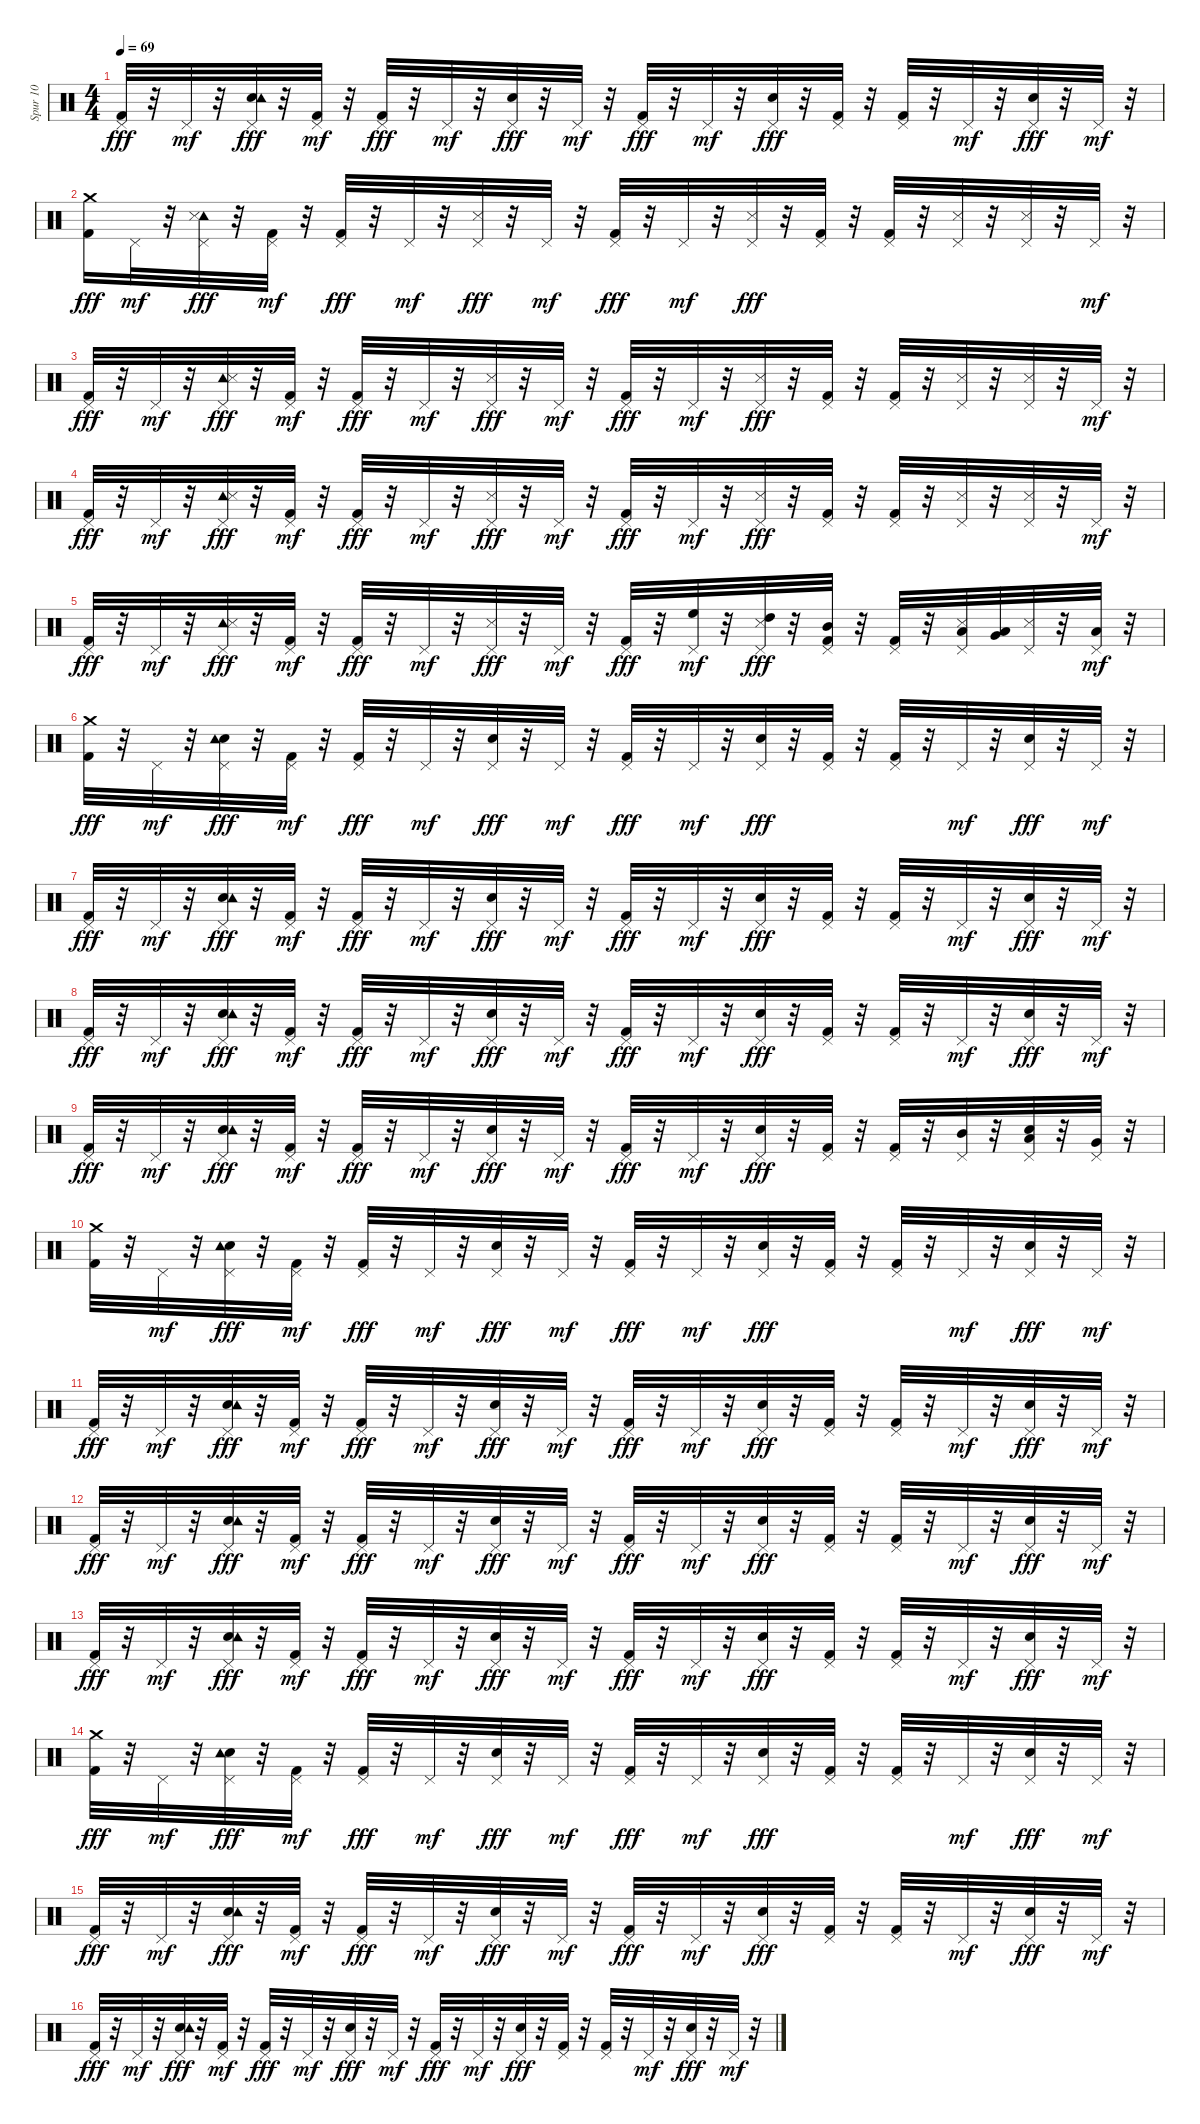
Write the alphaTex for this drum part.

\track ("Spur 10" "Spur 10") {instrument percussion}
\staff {score}
\articulation defaults
\ts (4 4)
\tempo 69
\clef neutral
\ks c
("Kick (hit) 2" "Pedal Hi-Hat (hit)").32{dy fff} r.32 "Pedal Hi-Hat (hit)".32{dy mf} r.32 ("Snare (hit) 2" "Pedal Hi-Hat (hit)" "Tambourine (hit)").32{dy fff} r.32 ("Kick (hit) 2" "Pedal Hi-Hat (hit)").32{dy mf} r.32 ("Kick (hit) 2" "Pedal Hi-Hat (hit)").32{dy fff} r.32 "Pedal Hi-Hat (hit)".32{dy mf} r.32 ("Snare (hit) 2" "Pedal Hi-Hat (hit)").32{dy fff} r.32 "Pedal Hi-Hat (hit)".32{dy mf} r.32 ("Kick (hit) 2" "Pedal Hi-Hat (hit)").32{dy fff} r.32 "Pedal Hi-Hat (hit)".32{dy mf} r.32 ("Snare (hit) 2" "Pedal Hi-Hat (hit)").32{dy fff} r.32 ("Kick (hit) 2" "Pedal Hi-Hat (hit)").32 r.32 ("Kick (hit) 2" "Pedal Hi-Hat (hit)").32 r.32 "Pedal Hi-Hat (hit)".32{dy mf} r.32 ("Snare (hit) 2" "Pedal Hi-Hat (hit)").32{dy fff} r.32 "Pedal Hi-Hat (hit)".32{dy mf} r.32 |
("Kick (hit) 2" "Crash medium (hit)").16{dy fff} "Pedal Hi-Hat (hit)".32{dy mf} r.32 ("Pedal Hi-Hat (hit)" "Tambourine (hit)" "Snare (side stick) 3").32{dy fff} r.32 ("Kick (hit) 2" "Pedal Hi-Hat (hit)").32{dy mf} r.32 ("Kick (hit) 2" "Pedal Hi-Hat (hit)").32{dy fff} r.32 "Pedal Hi-Hat (hit)".32{dy mf} r.32 ("Pedal Hi-Hat (hit)" "Snare (side stick) 3").32{dy fff} r.32 "Pedal Hi-Hat (hit)".32{dy mf} r.32 ("Kick (hit) 2" "Pedal Hi-Hat (hit)").32{dy fff} r.32 "Pedal Hi-Hat (hit)".32{dy mf} r.32 ("Pedal Hi-Hat (hit)" "Snare (side stick) 3").32{dy fff} r.32 ("Kick (hit) 2" "Pedal Hi-Hat (hit)").32 r.32 ("Kick (hit) 2" "Pedal Hi-Hat (hit)").32 r.32 ("Pedal Hi-Hat (hit)" "Snare (side stick) 3").32 r.32 ("Pedal Hi-Hat (hit)" "Snare (side stick) 3").32 r.32 "Pedal Hi-Hat (hit)".32{dy mf} r.32 |
("Kick (hit) 2" "Pedal Hi-Hat (hit)").32{dy fff} r.32 "Pedal Hi-Hat (hit)".32{dy mf} r.32 ("Pedal Hi-Hat (hit)" "Tambourine (hit)" "Snare (side stick) 3").32{dy fff} r.32 ("Kick (hit) 2" "Pedal Hi-Hat (hit)").32{dy mf} r.32 ("Kick (hit) 2" "Pedal Hi-Hat (hit)").32{dy fff} r.32 "Pedal Hi-Hat (hit)".32{dy mf} r.32 ("Pedal Hi-Hat (hit)" "Snare (side stick) 3").32{dy fff} r.32 "Pedal Hi-Hat (hit)".32{dy mf} r.32 ("Kick (hit) 2" "Pedal Hi-Hat (hit)").32{dy fff} r.32 "Pedal Hi-Hat (hit)".32{dy mf} r.32 ("Pedal Hi-Hat (hit)" "Snare (side stick) 3").32{dy fff} r.32 ("Kick (hit) 2" "Pedal Hi-Hat (hit)").32 r.32 ("Kick (hit) 2" "Pedal Hi-Hat (hit)").32 r.32 ("Pedal Hi-Hat (hit)" "Snare (side stick) 3").32 r.32 ("Pedal Hi-Hat (hit)" "Snare (side stick) 3").32 r.32 "Pedal Hi-Hat (hit)".32{dy mf} r.32 |
("Kick (hit) 2" "Pedal Hi-Hat (hit)").32{dy fff} r.32 "Pedal Hi-Hat (hit)".32{dy mf} r.32 ("Pedal Hi-Hat (hit)" "Tambourine (hit)" "Snare (side stick) 3").32{dy fff} r.32 ("Kick (hit) 2" "Pedal Hi-Hat (hit)").32{dy mf} r.32 ("Kick (hit) 2" "Pedal Hi-Hat (hit)").32{dy fff} r.32 "Pedal Hi-Hat (hit)".32{dy mf} r.32 ("Pedal Hi-Hat (hit)" "Snare (side stick) 3").32{dy fff} r.32 "Pedal Hi-Hat (hit)".32{dy mf} r.32 ("Kick (hit) 2" "Pedal Hi-Hat (hit)").32{dy fff} r.32 "Pedal Hi-Hat (hit)".32{dy mf} r.32 ("Pedal Hi-Hat (hit)" "Snare (side stick) 3").32{dy fff} r.32 ("Kick (hit) 2" "Pedal Hi-Hat (hit)").32 r.32 ("Kick (hit) 2" "Pedal Hi-Hat (hit)").32 r.32 ("Pedal Hi-Hat (hit)" "Snare (side stick) 3").32 r.32 ("Pedal Hi-Hat (hit)" "Snare (side stick) 3").32 r.32 "Pedal Hi-Hat (hit)".32{dy mf} r.32 |
("Kick (hit) 2" "Pedal Hi-Hat (hit)").32{dy fff} r.32 "Pedal Hi-Hat (hit)".32{dy mf} r.32 ("Pedal Hi-Hat (hit)" "Tambourine (hit)" "Snare (side stick) 3").32{dy fff} r.32 ("Kick (hit) 2" "Pedal Hi-Hat (hit)").32{dy mf} r.32 ("Kick (hit) 2" "Pedal Hi-Hat (hit)").32{dy fff} r.32 "Pedal Hi-Hat (hit)".32{dy mf} r.32 ("Pedal Hi-Hat (hit)" "Snare (side stick) 3").32{dy fff} r.32 "Pedal Hi-Hat (hit)".32{dy mf} r.32 ("Kick (hit) 2" "Pedal Hi-Hat (hit)").32{dy fff} r.32 ("High Floor Tom (hit)" "Pedal Hi-Hat (hit)").32{dy mf} r.32 ("High Tom (hit)" "Pedal Hi-Hat (hit)" "Snare (side stick) 3").32{dy fff} r.32 ("Mid Tom (hit)" "Kick (hit) 2" "Pedal Hi-Hat (hit)").32 r.32 ("Kick (hit) 2" "Pedal Hi-Hat (hit)").32 r.32 ("Pedal Hi-Hat (hit)" "Snare (side stick) 3" "Low Tom (hit)").32 ("Low Tom (hit)" "Very Low Tom (hit)").32 ("Pedal Hi-Hat (hit)" "Snare (side stick) 3").32 r.32 ("Low Floor Tom (hit)" "Pedal Hi-Hat (hit)").32{dy mf} r.32 |
("Kick (hit) 2" "Crash medium (hit)").32{dy fff} r.32 "Pedal Hi-Hat (hit)".32{dy mf} r.32 ("Snare (hit) 2" "Pedal Hi-Hat (hit)" "Tambourine (hit)").32{dy fff} r.32 ("Kick (hit) 2" "Pedal Hi-Hat (hit)").32{dy mf} r.32 ("Kick (hit) 2" "Pedal Hi-Hat (hit)").32{dy fff} r.32 "Pedal Hi-Hat (hit)".32{dy mf} r.32 ("Snare (hit) 2" "Pedal Hi-Hat (hit)").32{dy fff} r.32 "Pedal Hi-Hat (hit)".32{dy mf} r.32 ("Kick (hit) 2" "Pedal Hi-Hat (hit)").32{dy fff} r.32 "Pedal Hi-Hat (hit)".32{dy mf} r.32 ("Snare (hit) 2" "Pedal Hi-Hat (hit)").32{dy fff} r.32 ("Kick (hit) 2" "Pedal Hi-Hat (hit)").32 r.32 ("Kick (hit) 2" "Pedal Hi-Hat (hit)").32 r.32 "Pedal Hi-Hat (hit)".32{dy mf} r.32 ("Snare (hit) 2" "Pedal Hi-Hat (hit)").32{dy fff} r.32 "Pedal Hi-Hat (hit)".32{dy mf} r.32 |
("Kick (hit) 2" "Pedal Hi-Hat (hit)").32{dy fff} r.32 "Pedal Hi-Hat (hit)".32{dy mf} r.32 ("Snare (hit) 2" "Pedal Hi-Hat (hit)" "Tambourine (hit)").32{dy fff} r.32 ("Kick (hit) 2" "Pedal Hi-Hat (hit)").32{dy mf} r.32 ("Kick (hit) 2" "Pedal Hi-Hat (hit)").32{dy fff} r.32 "Pedal Hi-Hat (hit)".32{dy mf} r.32 ("Snare (hit) 2" "Pedal Hi-Hat (hit)").32{dy fff} r.32 "Pedal Hi-Hat (hit)".32{dy mf} r.32 ("Kick (hit) 2" "Pedal Hi-Hat (hit)").32{dy fff} r.32 "Pedal Hi-Hat (hit)".32{dy mf} r.32 ("Snare (hit) 2" "Pedal Hi-Hat (hit)").32{dy fff} r.32 ("Kick (hit) 2" "Pedal Hi-Hat (hit)").32 r.32 ("Kick (hit) 2" "Pedal Hi-Hat (hit)").32 r.32 "Pedal Hi-Hat (hit)".32{dy mf} r.32 ("Snare (hit) 2" "Pedal Hi-Hat (hit)").32{dy fff} r.32 "Pedal Hi-Hat (hit)".32{dy mf} r.32 |
("Kick (hit) 2" "Pedal Hi-Hat (hit)").32{dy fff} r.32 "Pedal Hi-Hat (hit)".32{dy mf} r.32 ("Snare (hit) 2" "Pedal Hi-Hat (hit)" "Tambourine (hit)").32{dy fff} r.32 ("Kick (hit) 2" "Pedal Hi-Hat (hit)").32{dy mf} r.32 ("Kick (hit) 2" "Pedal Hi-Hat (hit)").32{dy fff} r.32 "Pedal Hi-Hat (hit)".32{dy mf} r.32 ("Snare (hit) 2" "Pedal Hi-Hat (hit)").32{dy fff} r.32 "Pedal Hi-Hat (hit)".32{dy mf} r.32 ("Kick (hit) 2" "Pedal Hi-Hat (hit)").32{dy fff} r.32 "Pedal Hi-Hat (hit)".32{dy mf} r.32 ("Snare (hit) 2" "Pedal Hi-Hat (hit)").32{dy fff} r.32 ("Kick (hit) 2" "Pedal Hi-Hat (hit)").32 r.32 ("Kick (hit) 2" "Pedal Hi-Hat (hit)").32 r.32 "Pedal Hi-Hat (hit)".32{dy mf} r.32 ("Snare (hit) 2" "Pedal Hi-Hat (hit)").32{dy fff} r.32 "Pedal Hi-Hat (hit)".32{dy mf} r.32 |
("Kick (hit) 2" "Pedal Hi-Hat (hit)").32{dy fff} r.32 "Pedal Hi-Hat (hit)".32{dy mf} r.32 ("Snare (hit) 2" "Pedal Hi-Hat (hit)" "Tambourine (hit)").32{dy fff} r.32 ("Kick (hit) 2" "Pedal Hi-Hat (hit)").32{dy mf} r.32 ("Kick (hit) 2" "Pedal Hi-Hat (hit)").32{dy fff} r.32 "Pedal Hi-Hat (hit)".32{dy mf} r.32 ("Snare (hit) 2" "Pedal Hi-Hat (hit)").32{dy fff} r.32 "Pedal Hi-Hat (hit)".32{dy mf} r.32 ("Kick (hit) 2" "Pedal Hi-Hat (hit)").32{dy fff} r.32 "Pedal Hi-Hat (hit)".32{dy mf} r.32 ("Snare (hit) 2" "Pedal Hi-Hat (hit)").32{dy fff} r.32 ("Kick (hit) 2" "Pedal Hi-Hat (hit)").32 r.32 ("Kick (hit) 2" "Pedal Hi-Hat (hit)").32 r.32 ("Pedal Hi-Hat (hit)" "Mid Tom (hit)").32 r.32 ("Snare (hit) 2" "Pedal Hi-Hat (hit)" "Low Tom (hit)").32 r.32 ("Pedal Hi-Hat (hit)" "Very Low Tom (hit)").32 r.32 |
("Kick (hit) 2" "Crash medium (hit)").32 r.32 "Pedal Hi-Hat (hit)".32{dy mf} r.32 ("Snare (hit) 2" "Pedal Hi-Hat (hit)" "Tambourine (hit)").32{dy fff} r.32 ("Kick (hit) 2" "Pedal Hi-Hat (hit)").32{dy mf} r.32 ("Kick (hit) 2" "Pedal Hi-Hat (hit)").32{dy fff} r.32 "Pedal Hi-Hat (hit)".32{dy mf} r.32 ("Snare (hit) 2" "Pedal Hi-Hat (hit)").32{dy fff} r.32 "Pedal Hi-Hat (hit)".32{dy mf} r.32 ("Kick (hit) 2" "Pedal Hi-Hat (hit)").32{dy fff} r.32 "Pedal Hi-Hat (hit)".32{dy mf} r.32 ("Snare (hit) 2" "Pedal Hi-Hat (hit)").32{dy fff} r.32 ("Kick (hit) 2" "Pedal Hi-Hat (hit)").32 r.32 ("Kick (hit) 2" "Pedal Hi-Hat (hit)").32 r.32 "Pedal Hi-Hat (hit)".32{dy mf} r.32 ("Snare (hit) 2" "Pedal Hi-Hat (hit)").32{dy fff} r.32 "Pedal Hi-Hat (hit)".32{dy mf} r.32 |
("Kick (hit) 2" "Pedal Hi-Hat (hit)").32{dy fff} r.32 "Pedal Hi-Hat (hit)".32{dy mf} r.32 ("Snare (hit) 2" "Pedal Hi-Hat (hit)" "Tambourine (hit)").32{dy fff} r.32 ("Kick (hit) 2" "Pedal Hi-Hat (hit)").32{dy mf} r.32 ("Kick (hit) 2" "Pedal Hi-Hat (hit)").32{dy fff} r.32 "Pedal Hi-Hat (hit)".32{dy mf} r.32 ("Snare (hit) 2" "Pedal Hi-Hat (hit)").32{dy fff} r.32 "Pedal Hi-Hat (hit)".32{dy mf} r.32 ("Kick (hit) 2" "Pedal Hi-Hat (hit)").32{dy fff} r.32 "Pedal Hi-Hat (hit)".32{dy mf} r.32 ("Snare (hit) 2" "Pedal Hi-Hat (hit)").32{dy fff} r.32 ("Kick (hit) 2" "Pedal Hi-Hat (hit)").32 r.32 ("Kick (hit) 2" "Pedal Hi-Hat (hit)").32 r.32 "Pedal Hi-Hat (hit)".32{dy mf} r.32 ("Snare (hit) 2" "Pedal Hi-Hat (hit)").32{dy fff} r.32 "Pedal Hi-Hat (hit)".32{dy mf} r.32 |
("Kick (hit) 2" "Pedal Hi-Hat (hit)").32{dy fff} r.32 "Pedal Hi-Hat (hit)".32{dy mf} r.32 ("Snare (hit) 2" "Pedal Hi-Hat (hit)" "Tambourine (hit)").32{dy fff} r.32 ("Kick (hit) 2" "Pedal Hi-Hat (hit)").32{dy mf} r.32 ("Kick (hit) 2" "Pedal Hi-Hat (hit)").32{dy fff} r.32 "Pedal Hi-Hat (hit)".32{dy mf} r.32 ("Snare (hit) 2" "Pedal Hi-Hat (hit)").32{dy fff} r.32 "Pedal Hi-Hat (hit)".32{dy mf} r.32 ("Kick (hit) 2" "Pedal Hi-Hat (hit)").32{dy fff} r.32 "Pedal Hi-Hat (hit)".32{dy mf} r.32 ("Snare (hit) 2" "Pedal Hi-Hat (hit)").32{dy fff} r.32 ("Kick (hit) 2" "Pedal Hi-Hat (hit)").32 r.32 ("Kick (hit) 2" "Pedal Hi-Hat (hit)").32 r.32 "Pedal Hi-Hat (hit)".32{dy mf} r.32 ("Snare (hit) 2" "Pedal Hi-Hat (hit)").32{dy fff} r.32 "Pedal Hi-Hat (hit)".32{dy mf} r.32 |
("Kick (hit) 2" "Pedal Hi-Hat (hit)").32{dy fff} r.32 "Pedal Hi-Hat (hit)".32{dy mf} r.32 ("Snare (hit) 2" "Pedal Hi-Hat (hit)" "Tambourine (hit)").32{dy fff} r.32 ("Kick (hit) 2" "Pedal Hi-Hat (hit)").32{dy mf} r.32 ("Kick (hit) 2" "Pedal Hi-Hat (hit)").32{dy fff} r.32 "Pedal Hi-Hat (hit)".32{dy mf} r.32 ("Snare (hit) 2" "Pedal Hi-Hat (hit)").32{dy fff} r.32 "Pedal Hi-Hat (hit)".32{dy mf} r.32 ("Kick (hit) 2" "Pedal Hi-Hat (hit)").32{dy fff} r.32 "Pedal Hi-Hat (hit)".32{dy mf} r.32 ("Snare (hit) 2" "Pedal Hi-Hat (hit)").32{dy fff} r.32 ("Kick (hit) 2" "Pedal Hi-Hat (hit)").32 r.32 ("Kick (hit) 2" "Pedal Hi-Hat (hit)").32 r.32 "Pedal Hi-Hat (hit)".32{dy mf} r.32 ("Snare (hit) 2" "Pedal Hi-Hat (hit)").32{dy fff} r.32 "Pedal Hi-Hat (hit)".32{dy mf} r.32 |
("Kick (hit) 2" "Crash medium (hit)").32{dy fff} r.32 "Pedal Hi-Hat (hit)".32{dy mf} r.32 ("Snare (hit) 2" "Pedal Hi-Hat (hit)" "Tambourine (hit)").32{dy fff} r.32 ("Kick (hit) 2" "Pedal Hi-Hat (hit)").32{dy mf} r.32 ("Kick (hit) 2" "Pedal Hi-Hat (hit)").32{dy fff} r.32 "Pedal Hi-Hat (hit)".32{dy mf} r.32 ("Snare (hit) 2" "Pedal Hi-Hat (hit)").32{dy fff} r.32 "Pedal Hi-Hat (hit)".32{dy mf} r.32 ("Kick (hit) 2" "Pedal Hi-Hat (hit)").32{dy fff} r.32 "Pedal Hi-Hat (hit)".32{dy mf} r.32 ("Snare (hit) 2" "Pedal Hi-Hat (hit)").32{dy fff} r.32 ("Kick (hit) 2" "Pedal Hi-Hat (hit)").32 r.32 ("Kick (hit) 2" "Pedal Hi-Hat (hit)").32 r.32 "Pedal Hi-Hat (hit)".32{dy mf} r.32 ("Snare (hit) 2" "Pedal Hi-Hat (hit)").32{dy fff} r.32 "Pedal Hi-Hat (hit)".32{dy mf} r.32 |
("Kick (hit) 2" "Pedal Hi-Hat (hit)").32{dy fff} r.32 "Pedal Hi-Hat (hit)".32{dy mf} r.32 ("Snare (hit) 2" "Pedal Hi-Hat (hit)" "Tambourine (hit)").32{dy fff} r.32 ("Kick (hit) 2" "Pedal Hi-Hat (hit)").32{dy mf} r.32 ("Kick (hit) 2" "Pedal Hi-Hat (hit)").32{dy fff} r.32 "Pedal Hi-Hat (hit)".32{dy mf} r.32 ("Snare (hit) 2" "Pedal Hi-Hat (hit)").32{dy fff} r.32 "Pedal Hi-Hat (hit)".32{dy mf} r.32 ("Kick (hit) 2" "Pedal Hi-Hat (hit)").32{dy fff} r.32 "Pedal Hi-Hat (hit)".32{dy mf} r.32 ("Snare (hit) 2" "Pedal Hi-Hat (hit)").32{dy fff} r.32 ("Kick (hit) 2" "Pedal Hi-Hat (hit)").32 r.32 ("Kick (hit) 2" "Pedal Hi-Hat (hit)").32 r.32 "Pedal Hi-Hat (hit)".32{dy mf} r.32 ("Snare (hit) 2" "Pedal Hi-Hat (hit)").32{dy fff} r.32 "Pedal Hi-Hat (hit)".32{dy mf} r.32 |
("Kick (hit) 2" "Pedal Hi-Hat (hit)").32{dy fff} r.32 "Pedal Hi-Hat (hit)".32{dy mf} r.32 ("Snare (hit) 2" "Pedal Hi-Hat (hit)" "Tambourine (hit)").32{dy fff} r.32 ("Kick (hit) 2" "Pedal Hi-Hat (hit)").32{dy mf} r.32 ("Kick (hit) 2" "Pedal Hi-Hat (hit)").32{dy fff} r.32 "Pedal Hi-Hat (hit)".32{dy mf} r.32 ("Snare (hit) 2" "Pedal Hi-Hat (hit)").32{dy fff} r.32 "Pedal Hi-Hat (hit)".32{dy mf} r.32 ("Kick (hit) 2" "Pedal Hi-Hat (hit)").32{dy fff} r.32 "Pedal Hi-Hat (hit)".32{dy mf} r.32 ("Snare (hit) 2" "Pedal Hi-Hat (hit)").32{dy fff} r.32 ("Kick (hit) 2" "Pedal Hi-Hat (hit)").32 r.32 ("Kick (hit) 2" "Pedal Hi-Hat (hit)").32 r.32 "Pedal Hi-Hat (hit)".32{dy mf} r.32 ("Snare (hit) 2" "Pedal Hi-Hat (hit)").32{dy fff} r.32 "Pedal Hi-Hat (hit)".32{dy mf} r.32
